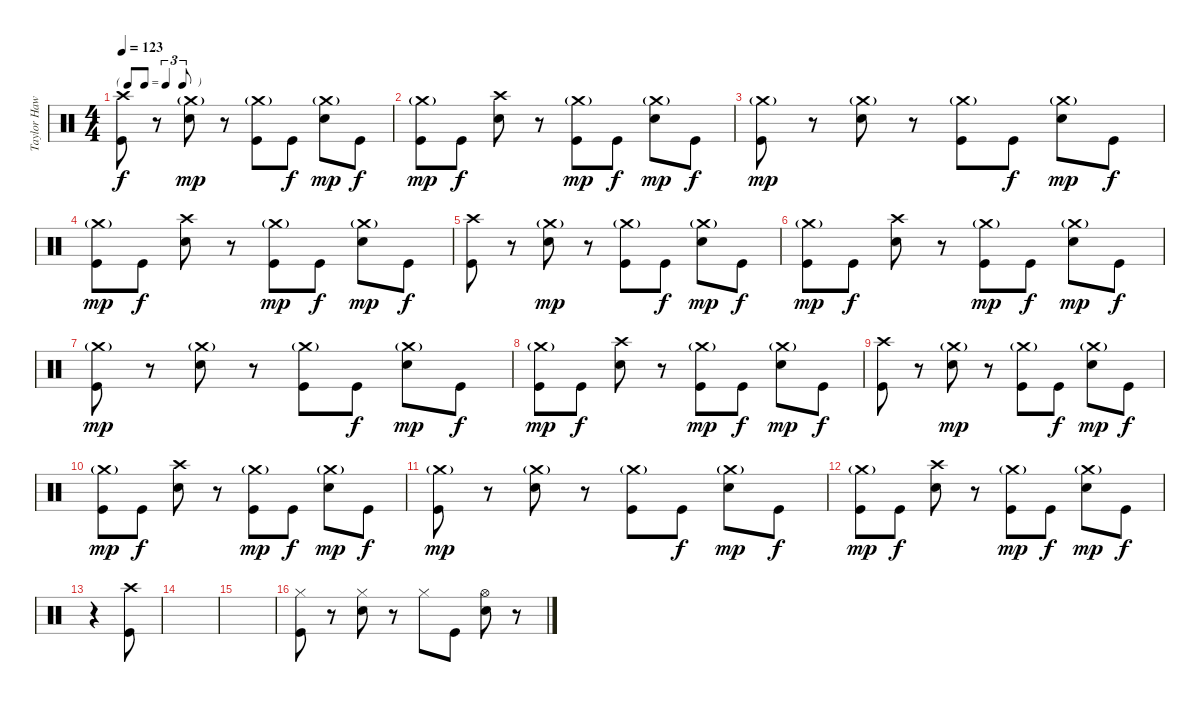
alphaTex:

\track ("Taylor Hawkins - Drums" "Taylor Haw") {instrument percussion}
\staff {score}
\articulation defaults
\ts (4 4)
\tf triplet8th
\tempo 123
\clef neutral
\ks c
("Crash high (hit)" "Kick (hit)").8{dy f} r.8 ("Crash medium (hit)"{g} "Electric Snare (hit)").8{dy mp} r.8 ("Crash medium (hit)"{g} "Kick (hit)").8 "Kick (hit)".8{dy f} ("Crash medium (hit)"{g} "Electric Snare (hit)").8{dy mp} "Kick (hit)".8{dy f} |
("Crash medium (hit)"{g} "Kick (hit)").8{dy mp} "Kick (hit)".8{dy f} ("Crash high (hit)" "Electric Snare (hit)").8 r.8 ("Crash medium (hit)"{g} "Kick (hit)").8{dy mp} "Kick (hit)".8{dy f} ("Crash medium (hit)"{g} "Electric Snare (hit)").8{dy mp} "Kick (hit)".8{dy f} |
("Crash medium (hit)"{g} "Kick (hit)").8{dy mp} r.8 ("Crash medium (hit)"{g} "Electric Snare (hit)").8 r.8 ("Crash medium (hit)"{g} "Kick (hit)").8 "Kick (hit)".8{dy f} ("Crash medium (hit)"{g} "Electric Snare (hit)").8{dy mp} "Kick (hit)".8{dy f} |
("Crash medium (hit)"{g} "Kick (hit)").8{dy mp} "Kick (hit)".8{dy f} ("Crash high (hit)" "Electric Snare (hit)").8 r.8 ("Crash medium (hit)"{g} "Kick (hit)").8{dy mp} "Kick (hit)".8{dy f} ("Crash medium (hit)"{g} "Electric Snare (hit)").8{dy mp} "Kick (hit)".8{dy f} |
("Crash high (hit)" "Kick (hit)").8 r.8 ("Crash medium (hit)"{g} "Electric Snare (hit)").8{dy mp} r.8 ("Crash medium (hit)"{g} "Kick (hit)").8 "Kick (hit)".8{dy f} ("Crash medium (hit)"{g} "Electric Snare (hit)").8{dy mp} "Kick (hit)".8{dy f} |
("Crash medium (hit)"{g} "Kick (hit)").8{dy mp} "Kick (hit)".8{dy f} ("Crash high (hit)" "Electric Snare (hit)").8 r.8 ("Crash medium (hit)"{g} "Kick (hit)").8{dy mp} "Kick (hit)".8{dy f} ("Crash medium (hit)"{g} "Electric Snare (hit)").8{dy mp} "Kick (hit)".8{dy f} |
("Crash medium (hit)"{g} "Kick (hit)").8{dy mp} r.8 ("Crash medium (hit)"{g} "Electric Snare (hit)").8 r.8 ("Crash medium (hit)"{g} "Kick (hit)").8 "Kick (hit)".8{dy f} ("Crash medium (hit)"{g} "Electric Snare (hit)").8{dy mp} "Kick (hit)".8{dy f} |
("Crash medium (hit)"{g} "Kick (hit)").8{dy mp} "Kick (hit)".8{dy f} ("Crash high (hit)" "Electric Snare (hit)").8 r.8 ("Crash medium (hit)"{g} "Kick (hit)").8{dy mp} "Kick (hit)".8{dy f} ("Crash medium (hit)"{g} "Electric Snare (hit)").8{dy mp} "Kick (hit)".8{dy f} |
("Crash high (hit)" "Kick (hit)").8 r.8 ("Crash medium (hit)"{g} "Electric Snare (hit)").8{dy mp} r.8 ("Crash medium (hit)"{g} "Kick (hit)").8 "Kick (hit)".8{dy f} ("Crash medium (hit)"{g} "Electric Snare (hit)").8{dy mp} "Kick (hit)".8{dy f} |
("Crash medium (hit)"{g} "Kick (hit)").8{dy mp} "Kick (hit)".8{dy f} ("Crash high (hit)" "Electric Snare (hit)").8 r.8 ("Crash medium (hit)"{g} "Kick (hit)").8{dy mp} "Kick (hit)".8{dy f} ("Crash medium (hit)"{g} "Electric Snare (hit)").8{dy mp} "Kick (hit)".8{dy f} |
("Crash medium (hit)"{g} "Kick (hit)").8{dy mp} r.8 ("Crash medium (hit)"{g} "Electric Snare (hit)").8 r.8 ("Crash medium (hit)"{g} "Kick (hit)").8 "Kick (hit)".8{dy f} ("Crash medium (hit)"{g} "Electric Snare (hit)").8{dy mp} "Kick (hit)".8{dy f} |
("Crash medium (hit)"{g} "Kick (hit)").8{dy mp} "Kick (hit)".8{dy f} ("Crash high (hit)" "Electric Snare (hit)").8 r.8 ("Crash medium (hit)"{g} "Kick (hit)").8{dy mp} "Kick (hit)".8{dy f} ("Crash medium (hit)"{g} "Electric Snare (hit)").8{dy mp} "Kick (hit)".8{dy f} |
r.4 ("Crash high (hit)" "Kick (hit)").8 |
|
|
("Hi-Hat (closed)" "Kick (hit)").8 r.8 ("Hi-Hat (closed)" "Electric Snare (hit)").8 r.8 "Hi-Hat (closed)".8 "Kick (hit)".8 ("Hi-Hat (open)" "Electric Snare (hit)").8 r.8
